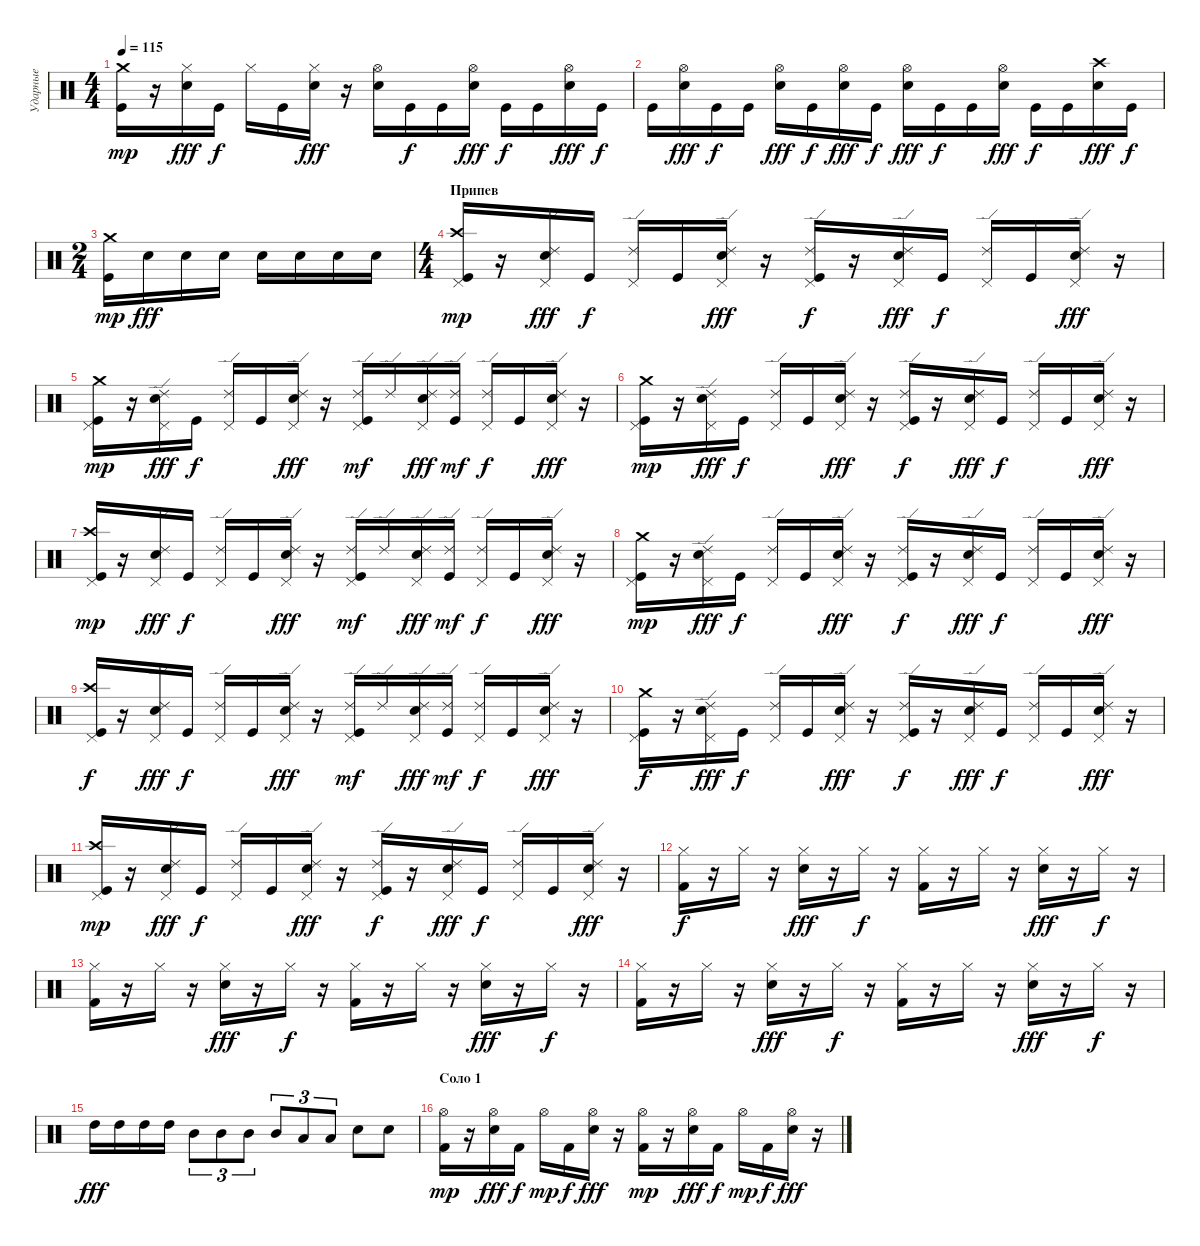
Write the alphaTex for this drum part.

\track ("Ударные" "Ударные") {instrument percussion}
\staff {score}
\articulation defaults
\ts (4 4)
\tempo 115
\clef neutral
\ks c
("Crash medium (hit)" "Kick (hit)").16{dy mp} r.16 ("Hi-Hat (closed)" "Electric Snare (hit)").16{dy fff} "Kick (hit)".16{dy f} "Hi-Hat (closed)".16 "Kick (hit)".16 ("Hi-Hat (closed)" "Electric Snare (hit)").16{dy fff} r.16 ("Hi-Hat (open)" "Electric Snare (hit)").16 "Kick (hit)".16{dy f} "Kick (hit)".16 ("Hi-Hat (open)" "Electric Snare (hit)").16{dy fff} "Kick (hit)".16{dy f} "Kick (hit)".16 ("Hi-Hat (open)" "Electric Snare (hit)").16{dy fff} "Kick (hit)".16{dy f} |
"Kick (hit)".16 ("Hi-Hat (open)" "Electric Snare (hit)").16{dy fff} "Kick (hit)".16{dy f} "Kick (hit)".16 ("Hi-Hat (open)" "Electric Snare (hit)").16{dy fff} "Kick (hit)".16{dy f} ("Hi-Hat (open)" "Electric Snare (hit)").16{dy fff} "Kick (hit)".16{dy f} ("Hi-Hat (open)" "Electric Snare (hit)").16{dy fff} "Kick (hit)".16{dy f} "Kick (hit)".16 ("Hi-Hat (open)" "Electric Snare (hit)").16{dy fff} "Kick (hit)".16{dy f} "Kick (hit)".16 ("Crash high (hit)" "Electric Snare (hit)").16{dy fff} "Kick (hit)".16{dy f} |
\ts (2 4)
("Crash medium (hit)" "Kick (hit)").16{dy mp} "Electric Snare (hit)".16{dy fff} "Electric Snare (hit)".16 "Electric Snare (hit)".16 "Electric Snare (hit)".16 "Electric Snare (hit)".16 "Electric Snare (hit)".16 "Electric Snare (hit)".16 |
\ts (4 4)
\section ("" "Припев")
("Crash high (hit)" "Pedal Hi-Hat (hit)" "Kick (hit)").16{dy mp} r.16 ("Ride (edge) 2" "Pedal Hi-Hat (hit)" "Electric Snare (hit)").16{dy fff} "Kick (hit)".16{dy f} ("Ride (edge) 2" "Pedal Hi-Hat (hit)").16 "Kick (hit)".16 ("Ride (edge) 2" "Pedal Hi-Hat (hit)" "Electric Snare (hit)").16{dy fff} r.16 ("Ride (edge) 2" "Pedal Hi-Hat (hit)" "Kick (hit)").16{dy f} r.16 ("Ride (edge) 2" "Pedal Hi-Hat (hit)" "Electric Snare (hit)").16{dy fff} "Kick (hit)".16{dy f} ("Ride (edge) 2" "Pedal Hi-Hat (hit)").16 "Kick (hit)".16 ("Ride (edge) 2" "Pedal Hi-Hat (hit)" "Electric Snare (hit)").16{dy fff} r.16 |
("Crash medium (hit)" "Pedal Hi-Hat (hit)" "Kick (hit)").16{dy mp} r.16 ("Ride (edge) 2" "Pedal Hi-Hat (hit)" "Electric Snare (hit)").16{dy fff} "Kick (hit)".16{dy f} ("Ride (edge) 2" "Pedal Hi-Hat (hit)").16 "Kick (hit)".16 ("Ride (edge) 2" "Pedal Hi-Hat (hit)" "Electric Snare (hit)").16{dy fff} r.16 ("Ride (edge) 2" "Pedal Hi-Hat (hit)" "Kick (hit)").16{dy mf} "Ride (edge) 2".16 ("Ride (edge) 2" "Pedal Hi-Hat (hit)" "Electric Snare (hit)").16{dy fff} ("Ride (edge) 2" "Kick (hit)").16{dy mf} ("Ride (edge) 2" "Pedal Hi-Hat (hit)").16{dy f} "Kick (hit)".16 ("Ride (edge) 2" "Pedal Hi-Hat (hit)" "Electric Snare (hit)").16{dy fff} r.16 |
("Crash medium (hit)" "Pedal Hi-Hat (hit)" "Kick (hit)").16{dy mp} r.16 ("Ride (edge) 2" "Pedal Hi-Hat (hit)" "Electric Snare (hit)").16{dy fff} "Kick (hit)".16{dy f} ("Ride (edge) 2" "Pedal Hi-Hat (hit)").16 "Kick (hit)".16 ("Ride (edge) 2" "Pedal Hi-Hat (hit)" "Electric Snare (hit)").16{dy fff} r.16 ("Ride (edge) 2" "Pedal Hi-Hat (hit)" "Kick (hit)").16{dy f} r.16 ("Ride (edge) 2" "Pedal Hi-Hat (hit)" "Electric Snare (hit)").16{dy fff} "Kick (hit)".16{dy f} ("Ride (edge) 2" "Pedal Hi-Hat (hit)").16 "Kick (hit)".16 ("Ride (edge) 2" "Pedal Hi-Hat (hit)" "Electric Snare (hit)").16{dy fff} r.16 |
("Crash high (hit)" "Pedal Hi-Hat (hit)" "Kick (hit)").16{dy mp} r.16 ("Ride (edge) 2" "Pedal Hi-Hat (hit)" "Electric Snare (hit)").16{dy fff} "Kick (hit)".16{dy f} ("Ride (edge) 2" "Pedal Hi-Hat (hit)").16 "Kick (hit)".16 ("Ride (edge) 2" "Pedal Hi-Hat (hit)" "Electric Snare (hit)").16{dy fff} r.16 ("Ride (edge) 2" "Pedal Hi-Hat (hit)" "Kick (hit)").16{dy mf} "Ride (edge) 2".16 ("Ride (edge) 2" "Pedal Hi-Hat (hit)" "Electric Snare (hit)").16{dy fff} ("Ride (edge) 2" "Kick (hit)").16{dy mf} ("Ride (edge) 2" "Pedal Hi-Hat (hit)").16{dy f} "Kick (hit)".16 ("Ride (edge) 2" "Pedal Hi-Hat (hit)" "Electric Snare (hit)").16{dy fff} r.16 |
("Crash medium (hit)" "Pedal Hi-Hat (hit)" "Kick (hit)").16{dy mp} r.16 ("Ride (edge) 2" "Pedal Hi-Hat (hit)" "Electric Snare (hit)").16{dy fff} "Kick (hit)".16{dy f} ("Ride (edge) 2" "Pedal Hi-Hat (hit)").16 "Kick (hit)".16 ("Ride (edge) 2" "Pedal Hi-Hat (hit)" "Electric Snare (hit)").16{dy fff} r.16 ("Ride (edge) 2" "Pedal Hi-Hat (hit)" "Kick (hit)").16{dy f} r.16 ("Ride (edge) 2" "Pedal Hi-Hat (hit)" "Electric Snare (hit)").16{dy fff} "Kick (hit)".16{dy f} ("Ride (edge) 2" "Pedal Hi-Hat (hit)").16 "Kick (hit)".16 ("Ride (edge) 2" "Pedal Hi-Hat (hit)" "Electric Snare (hit)").16{dy fff} r.16 |
("Crash high (hit)" "Pedal Hi-Hat (hit)" "Kick (hit)").16{dy f} r.16 ("Ride (edge) 2" "Pedal Hi-Hat (hit)" "Electric Snare (hit)").16{dy fff} "Kick (hit)".16{dy f} ("Ride (edge) 2" "Pedal Hi-Hat (hit)").16 "Kick (hit)".16 ("Ride (edge) 2" "Pedal Hi-Hat (hit)" "Electric Snare (hit)").16{dy fff} r.16 ("Ride (edge) 2" "Pedal Hi-Hat (hit)" "Kick (hit)").16{dy mf} "Ride (edge) 2".16 ("Ride (edge) 2" "Pedal Hi-Hat (hit)" "Electric Snare (hit)").16{dy fff} ("Ride (edge) 2" "Kick (hit)").16{dy mf} ("Ride (edge) 2" "Pedal Hi-Hat (hit)").16{dy f} "Kick (hit)".16 ("Ride (edge) 2" "Pedal Hi-Hat (hit)" "Electric Snare (hit)").16{dy fff} r.16 |
("Crash medium (hit)" "Pedal Hi-Hat (hit)" "Kick (hit)").16{dy f} r.16 ("Ride (edge) 2" "Pedal Hi-Hat (hit)" "Electric Snare (hit)").16{dy fff} "Kick (hit)".16{dy f} ("Ride (edge) 2" "Pedal Hi-Hat (hit)").16 "Kick (hit)".16 ("Ride (edge) 2" "Pedal Hi-Hat (hit)" "Electric Snare (hit)").16{dy fff} r.16 ("Ride (edge) 2" "Pedal Hi-Hat (hit)" "Kick (hit)").16{dy f} r.16 ("Ride (edge) 2" "Pedal Hi-Hat (hit)" "Electric Snare (hit)").16{dy fff} "Kick (hit)".16{dy f} ("Ride (edge) 2" "Pedal Hi-Hat (hit)").16 "Kick (hit)".16 ("Ride (edge) 2" "Pedal Hi-Hat (hit)" "Electric Snare (hit)").16{dy fff} r.16 |
("Crash high (hit)" "Pedal Hi-Hat (hit)" "Kick (hit)").16{dy mp} r.16 ("Ride (edge) 2" "Pedal Hi-Hat (hit)" "Electric Snare (hit)").16{dy fff} "Kick (hit)".16{dy f} ("Ride (edge) 2" "Pedal Hi-Hat (hit)").16 "Kick (hit)".16 ("Ride (edge) 2" "Pedal Hi-Hat (hit)" "Electric Snare (hit)").16{dy fff} r.16 ("Ride (edge) 2" "Pedal Hi-Hat (hit)" "Kick (hit)").16{dy f} r.16 ("Ride (edge) 2" "Pedal Hi-Hat (hit)" "Electric Snare (hit)").16{dy fff} "Kick (hit)".16{dy f} ("Ride (edge) 2" "Pedal Hi-Hat (hit)").16 "Kick (hit)".16 ("Ride (edge) 2" "Pedal Hi-Hat (hit)" "Electric Snare (hit)").16{dy fff} r.16 |
\section ("" "")
("Hi-Hat (closed)" "Kick (hit) 2").16{dy f} r.16 "Hi-Hat (closed)".16 r.16 ("Hi-Hat (closed)" "Electric Snare (hit)").16{dy fff} r.16 "Hi-Hat (closed)".16{dy f} r.16 ("Hi-Hat (closed)" "Kick (hit) 2").16 r.16 "Hi-Hat (closed)".16 r.16 ("Hi-Hat (closed)" "Electric Snare (hit)").16{dy fff} r.16 "Hi-Hat (closed)".16{dy f} r.16 |
("Hi-Hat (closed)" "Kick (hit) 2").16 r.16 "Hi-Hat (closed)".16 r.16 ("Hi-Hat (closed)" "Electric Snare (hit)").16{dy fff} r.16 "Hi-Hat (closed)".16{dy f} r.16 ("Hi-Hat (closed)" "Kick (hit) 2").16 r.16 "Hi-Hat (closed)".16 r.16 ("Hi-Hat (closed)" "Electric Snare (hit)").16{dy fff} r.16 "Hi-Hat (closed)".16{dy f} r.16 |
("Hi-Hat (closed)" "Kick (hit) 2").16 r.16 "Hi-Hat (closed)".16 r.16 ("Hi-Hat (closed)" "Electric Snare (hit)").16{dy fff} r.16 "Hi-Hat (closed)".16{dy f} r.16 ("Hi-Hat (closed)" "Kick (hit) 2").16 r.16 "Hi-Hat (closed)".16 r.16 ("Hi-Hat (closed)" "Electric Snare (hit)").16{dy fff} r.16 "Hi-Hat (closed)".16{dy f} r.16 |
"High Tom (hit)".16{dy fff} "High Tom (hit)".16 "High Tom (hit)".16 "High Tom (hit)".16 "Mid Tom (hit)".8{tu (3 2)} "Mid Tom (hit)".8{tu (3 2)} "Mid Tom (hit)".8{tu (3 2)} "Mid Tom (hit)".8{tu (3 2)} "Low Tom (hit)".8{tu (3 2)} "Low Tom (hit)".8{tu (3 2)} "Electric Snare (hit)".8 "Electric Snare (hit)".8 |
\section ("" "Соло 1")
("Hi-Hat (open)" "Kick (hit) 2").16{dy mp} r.16 ("Hi-Hat (open)" "Electric Snare (hit)").16{dy fff} "Kick (hit) 2".16{dy f} "Hi-Hat (open)".16{dy mp} "Kick (hit) 2".16{dy f} ("Hi-Hat (open)" "Electric Snare (hit)").16{dy fff} r.16 ("Hi-Hat (open)" "Kick (hit) 2").16{dy mp} r.16 ("Hi-Hat (open)" "Electric Snare (hit)").16{dy fff} "Kick (hit) 2".16{dy f} "Hi-Hat (open)".16{dy mp} "Kick (hit) 2".16{dy f} ("Hi-Hat (open)" "Electric Snare (hit)").16{dy fff} r.16
